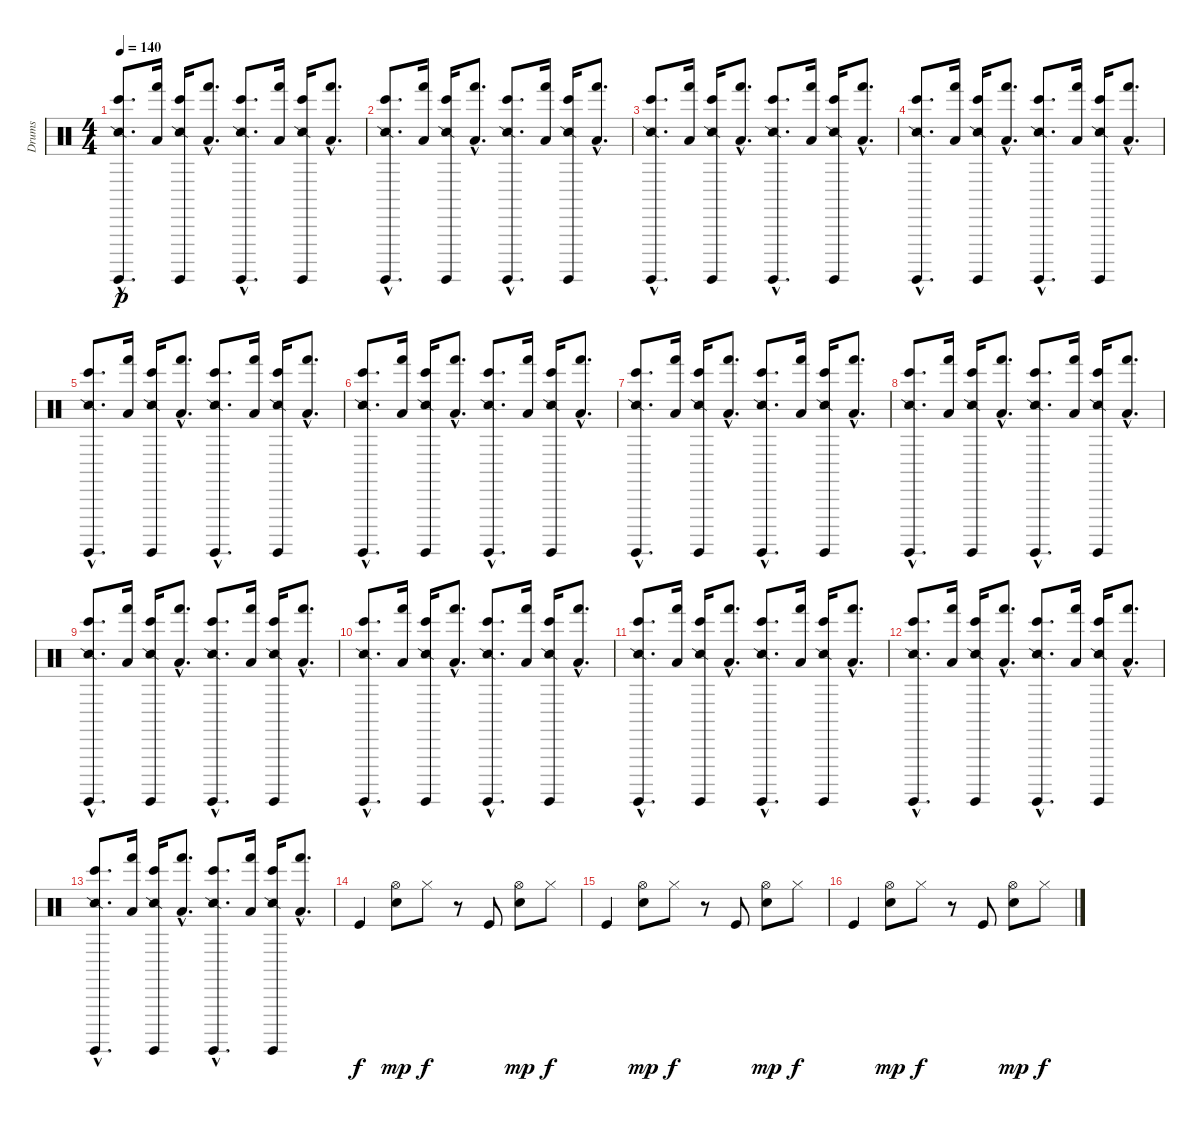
\track ("Drums" "Drums") {instrument percussion}
\staff {score}
\articulation defaults
\ts (4 4)
\tempo 140
\clef neutral
\ks c
("Surdo (hit)"{hac} "Snare (side stick) 2"{hac} "Bongo High (hit)"{hac}).8{d dy p} ("Hand (hit)" "Low Floor Tom (hit)").16 ("Surdo (hit)" "Snare (side stick) 2" "Bongo High (hit)").16 ("Hand (hit)"{hac} "Low Floor Tom (hit)"{hac}).8{d} ("Surdo (hit)"{hac} "Snare (side stick) 2"{hac} "Bongo High (hit)"{hac}).8{d} ("Hand (hit)" "Low Floor Tom (hit)").16 ("Surdo (hit)" "Snare (side stick) 2" "Bongo High (hit)").16 ("Hand (hit)"{hac} "Low Floor Tom (hit)"{hac}).8{d} |
("Surdo (hit)"{hac} "Snare (side stick) 2"{hac} "Bongo High (hit)"{hac}).8{d} ("Hand (hit)" "Low Floor Tom (hit)").16 ("Surdo (hit)" "Snare (side stick) 2" "Bongo High (hit)").16 ("Hand (hit)"{hac} "Low Floor Tom (hit)"{hac}).8{d} ("Surdo (hit)"{hac} "Snare (side stick) 2"{hac} "Bongo High (hit)"{hac}).8{d} ("Hand (hit)" "Low Floor Tom (hit)").16 ("Surdo (hit)" "Snare (side stick) 2" "Bongo High (hit)").16 ("Hand (hit)"{hac} "Low Floor Tom (hit)"{hac}).8{d} |
("Surdo (hit)"{hac} "Snare (side stick) 2"{hac} "Bongo High (hit)"{hac}).8{d} ("Hand (hit)" "Low Floor Tom (hit)").16 ("Surdo (hit)" "Snare (side stick) 2" "Bongo High (hit)").16 ("Hand (hit)"{hac} "Low Floor Tom (hit)"{hac}).8{d} ("Surdo (hit)"{hac} "Snare (side stick) 2"{hac} "Bongo High (hit)"{hac}).8{d} ("Hand (hit)" "Low Floor Tom (hit)").16 ("Surdo (hit)" "Snare (side stick) 2" "Bongo High (hit)").16 ("Hand (hit)"{hac} "Low Floor Tom (hit)"{hac}).8{d} |
("Surdo (hit)"{hac} "Snare (side stick) 2"{hac} "Bongo High (hit)"{hac}).8{d} ("Hand (hit)" "Low Floor Tom (hit)").16 ("Surdo (hit)" "Snare (side stick) 2" "Bongo High (hit)").16 ("Hand (hit)"{hac} "Low Floor Tom (hit)"{hac}).8{d} ("Surdo (hit)"{hac} "Snare (side stick) 2"{hac} "Bongo High (hit)"{hac}).8{d} ("Hand (hit)" "Low Floor Tom (hit)").16 ("Surdo (hit)" "Snare (side stick) 2" "Bongo High (hit)").16 ("Hand (hit)"{hac} "Low Floor Tom (hit)"{hac}).8{d} |
("Surdo (hit)"{hac} "Snare (side stick) 2"{hac} "Bongo High (hit)"{hac}).8{d} ("Hand (hit)" "Low Floor Tom (hit)").16 ("Surdo (hit)" "Snare (side stick) 2" "Bongo High (hit)").16 ("Hand (hit)"{hac} "Low Floor Tom (hit)"{hac}).8{d} ("Surdo (hit)"{hac} "Snare (side stick) 2"{hac} "Bongo High (hit)"{hac}).8{d} ("Hand (hit)" "Low Floor Tom (hit)").16 ("Surdo (hit)" "Snare (side stick) 2" "Bongo High (hit)").16 ("Hand (hit)"{hac} "Low Floor Tom (hit)"{hac}).8{d} |
("Surdo (hit)"{hac} "Snare (side stick) 2"{hac} "Bongo High (hit)"{hac}).8{d} ("Hand (hit)" "Low Floor Tom (hit)").16 ("Surdo (hit)" "Snare (side stick) 2" "Bongo High (hit)").16 ("Hand (hit)"{hac} "Low Floor Tom (hit)"{hac}).8{d} ("Surdo (hit)"{hac} "Snare (side stick) 2"{hac} "Bongo High (hit)"{hac}).8{d} ("Hand (hit)" "Low Floor Tom (hit)").16 ("Surdo (hit)" "Snare (side stick) 2" "Bongo High (hit)").16 ("Hand (hit)"{hac} "Low Floor Tom (hit)"{hac}).8{d} |
("Surdo (hit)"{hac} "Snare (side stick) 2"{hac} "Bongo High (hit)"{hac}).8{d} ("Hand (hit)" "Low Floor Tom (hit)").16 ("Surdo (hit)" "Snare (side stick) 2" "Bongo High (hit)").16 ("Hand (hit)"{hac} "Low Floor Tom (hit)"{hac}).8{d} ("Surdo (hit)"{hac} "Snare (side stick) 2"{hac} "Bongo High (hit)"{hac}).8{d} ("Hand (hit)" "Low Floor Tom (hit)").16 ("Surdo (hit)" "Snare (side stick) 2" "Bongo High (hit)").16 ("Hand (hit)"{hac} "Low Floor Tom (hit)"{hac}).8{d} |
("Surdo (hit)"{hac} "Snare (side stick) 2"{hac} "Bongo High (hit)"{hac}).8{d} ("Hand (hit)" "Low Floor Tom (hit)").16 ("Surdo (hit)" "Snare (side stick) 2" "Bongo High (hit)").16 ("Hand (hit)"{hac} "Low Floor Tom (hit)"{hac}).8{d} ("Surdo (hit)"{hac} "Snare (side stick) 2"{hac} "Bongo High (hit)"{hac}).8{d} ("Hand (hit)" "Low Floor Tom (hit)").16 ("Surdo (hit)" "Snare (side stick) 2" "Bongo High (hit)").16 ("Hand (hit)"{hac} "Low Floor Tom (hit)"{hac}).8{d} |
("Surdo (hit)"{hac} "Snare (side stick) 2"{hac} "Bongo High (hit)"{hac}).8{d} ("Hand (hit)" "Low Floor Tom (hit)").16 ("Surdo (hit)" "Snare (side stick) 2" "Bongo High (hit)").16 ("Hand (hit)"{hac} "Low Floor Tom (hit)"{hac}).8{d} ("Surdo (hit)"{hac} "Snare (side stick) 2"{hac} "Bongo High (hit)"{hac}).8{d} ("Hand (hit)" "Low Floor Tom (hit)").16 ("Surdo (hit)" "Snare (side stick) 2" "Bongo High (hit)").16 ("Hand (hit)"{hac} "Low Floor Tom (hit)"{hac}).8{d} |
("Surdo (hit)"{hac} "Snare (side stick) 2"{hac} "Bongo High (hit)"{hac}).8{d} ("Hand (hit)" "Low Floor Tom (hit)").16 ("Surdo (hit)" "Snare (side stick) 2" "Bongo High (hit)").16 ("Hand (hit)"{hac} "Low Floor Tom (hit)"{hac}).8{d} ("Surdo (hit)"{hac} "Snare (side stick) 2"{hac} "Bongo High (hit)"{hac}).8{d} ("Hand (hit)" "Low Floor Tom (hit)").16 ("Surdo (hit)" "Snare (side stick) 2" "Bongo High (hit)").16 ("Hand (hit)"{hac} "Low Floor Tom (hit)"{hac}).8{d} |
("Surdo (hit)"{hac} "Snare (side stick) 2"{hac} "Bongo High (hit)"{hac}).8{d} ("Hand (hit)" "Low Floor Tom (hit)").16 ("Surdo (hit)" "Snare (side stick) 2" "Bongo High (hit)").16 ("Hand (hit)"{hac} "Low Floor Tom (hit)"{hac}).8{d} ("Surdo (hit)"{hac} "Snare (side stick) 2"{hac} "Bongo High (hit)"{hac}).8{d} ("Hand (hit)" "Low Floor Tom (hit)").16 ("Surdo (hit)" "Snare (side stick) 2" "Bongo High (hit)").16 ("Hand (hit)"{hac} "Low Floor Tom (hit)"{hac}).8{d} |
("Surdo (hit)"{hac} "Snare (side stick) 2"{hac} "Bongo High (hit)"{hac}).8{d} ("Hand (hit)" "Low Floor Tom (hit)").16 ("Surdo (hit)" "Snare (side stick) 2" "Bongo High (hit)").16 ("Hand (hit)"{hac} "Low Floor Tom (hit)"{hac}).8{d} ("Surdo (hit)"{hac} "Snare (side stick) 2"{hac} "Bongo High (hit)"{hac}).8{d} ("Hand (hit)" "Low Floor Tom (hit)").16 ("Surdo (hit)" "Snare (side stick) 2" "Bongo High (hit)").16 ("Hand (hit)"{hac} "Low Floor Tom (hit)"{hac}).8{d} |
("Surdo (hit)"{hac} "Snare (side stick) 2"{hac} "Bongo High (hit)"{hac}).8{d} ("Hand (hit)" "Low Floor Tom (hit)").16 ("Surdo (hit)" "Snare (side stick) 2" "Bongo High (hit)").16 ("Hand (hit)"{hac} "Low Floor Tom (hit)"{hac}).8{d} ("Surdo (hit)"{hac} "Snare (side stick) 2"{hac} "Bongo High (hit)"{hac}).8{d} ("Hand (hit)" "Low Floor Tom (hit)").16 ("Surdo (hit)" "Snare (side stick) 2" "Bongo High (hit)").16 ("Hand (hit)"{hac} "Low Floor Tom (hit)"{hac}).8{d} |
"Kick (hit)".4{dy f volume 12} ("Hi-Hat (open)" "Snare (hit) 2").8{dy mp} "Hi-Hat (closed)".8{dy f} r.8 "Kick (hit)".8 ("Hi-Hat (open)" "Snare (hit) 2").8{dy mp} "Hi-Hat (closed)".8{dy f} |
"Kick (hit)".4 ("Hi-Hat (open)" "Snare (hit) 2").8{dy mp} "Hi-Hat (closed)".8{dy f} r.8 "Kick (hit)".8 ("Hi-Hat (open)" "Snare (hit) 2").8{dy mp} "Hi-Hat (closed)".8{dy f} |
"Kick (hit)".4 ("Hi-Hat (open)" "Snare (hit) 2").8{dy mp} "Hi-Hat (closed)".8{dy f} r.8 "Kick (hit)".8 ("Hi-Hat (open)" "Snare (hit) 2").8{dy mp} "Hi-Hat (closed)".8{dy f}
